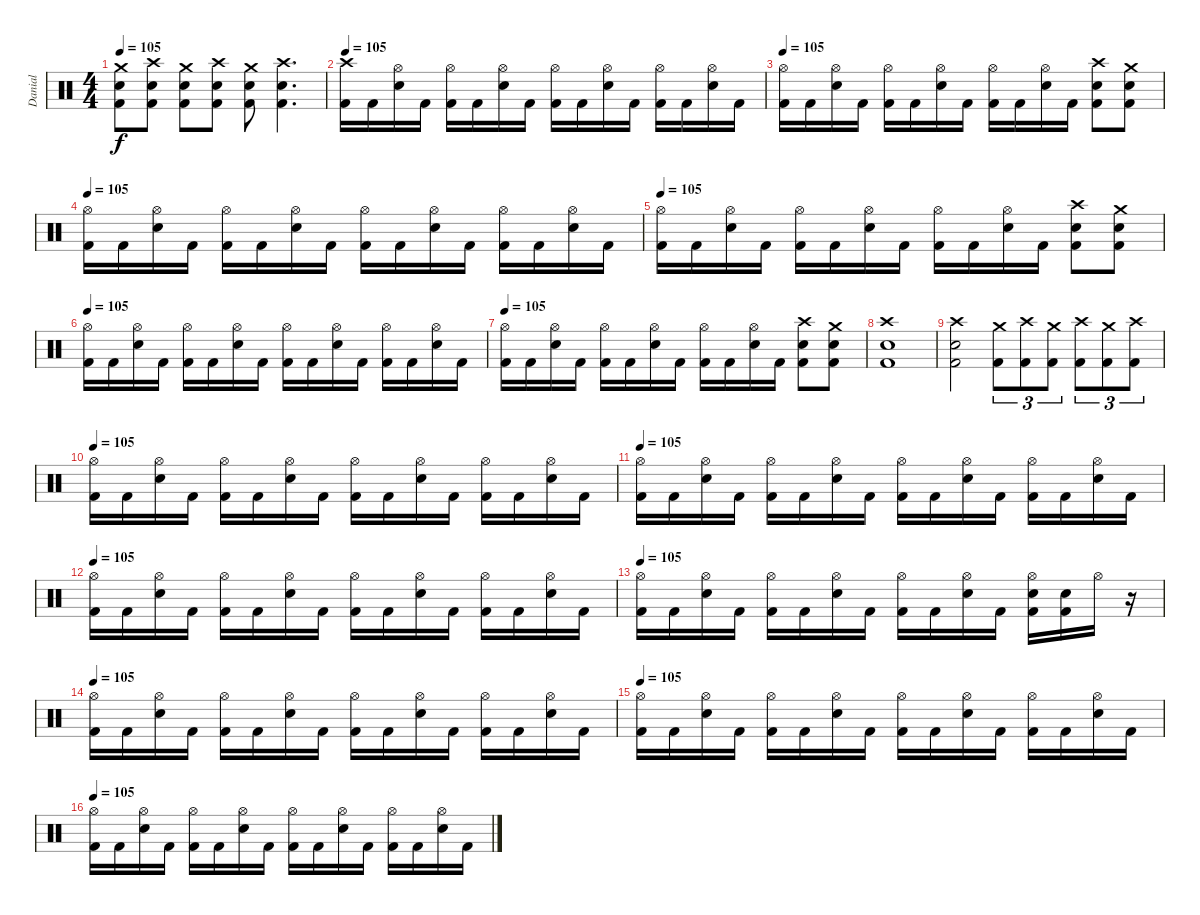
\track ("Danial" "Danial") {instrument percussion}
\staff {score}
\articulation defaults
\ts (4 4)
\tempo 105
\clef neutral
\ks c
("Crash medium (hit)" "Snare (hit) 2" "Kick (hit) 2").8{dy f} ("Crash high (hit)" "Snare (hit) 2" "Kick (hit) 2").8 ("Crash medium (hit)" "Snare (hit) 2" "Kick (hit) 2").8 ("Crash high (hit)" "Snare (hit) 2" "Kick (hit) 2").8 ("Crash medium (hit)" "Snare (hit) 2" "Kick (hit) 2").8 ("Crash high (hit)" "Snare (hit) 2" "Kick (hit) 2").4{d} |
\tempo 105
("Crash high (hit)" "Kick (hit) 2").16 "Kick (hit) 2".16 ("Hi-Hat (open)" "Snare (hit) 2").16 "Kick (hit) 2".16 ("Hi-Hat (open)" "Kick (hit) 2").16 "Kick (hit) 2".16 ("Hi-Hat (open)" "Snare (hit) 2").16 "Kick (hit) 2".16 ("Hi-Hat (open)" "Kick (hit) 2").16 "Kick (hit) 2".16 ("Hi-Hat (open)" "Snare (hit) 2").16 "Kick (hit) 2".16 ("Hi-Hat (open)" "Kick (hit) 2").16 "Kick (hit) 2".16 ("Hi-Hat (open)" "Snare (hit) 2").16 "Kick (hit) 2".16 |
\tempo 105
("Hi-Hat (open)" "Kick (hit) 2").16 "Kick (hit) 2".16 ("Hi-Hat (open)" "Snare (hit) 2").16 "Kick (hit) 2".16 ("Hi-Hat (open)" "Kick (hit) 2").16 "Kick (hit) 2".16 ("Hi-Hat (open)" "Snare (hit) 2").16 "Kick (hit) 2".16 ("Hi-Hat (open)" "Kick (hit) 2").16 "Kick (hit) 2".16 ("Hi-Hat (open)" "Snare (hit) 2").16 "Kick (hit) 2".16 ("Crash high (hit)" "Snare (hit) 2" "Kick (hit) 2").8 ("Crash medium (hit)" "Snare (hit) 2" "Kick (hit) 2").8 |
\tempo 105
("Hi-Hat (open)" "Kick (hit) 2").16 "Kick (hit) 2".16 ("Hi-Hat (open)" "Snare (hit) 2").16 "Kick (hit) 2".16 ("Hi-Hat (open)" "Kick (hit) 2").16 "Kick (hit) 2".16 ("Hi-Hat (open)" "Snare (hit) 2").16 "Kick (hit) 2".16 ("Hi-Hat (open)" "Kick (hit) 2").16 "Kick (hit) 2".16 ("Hi-Hat (open)" "Snare (hit) 2").16 "Kick (hit) 2".16 ("Hi-Hat (open)" "Kick (hit) 2").16 "Kick (hit) 2".16 ("Hi-Hat (open)" "Snare (hit) 2").16 "Kick (hit) 2".16 |
\tempo 105
("Hi-Hat (open)" "Kick (hit) 2").16 "Kick (hit) 2".16 ("Hi-Hat (open)" "Snare (hit) 2").16 "Kick (hit) 2".16 ("Hi-Hat (open)" "Kick (hit) 2").16 "Kick (hit) 2".16 ("Hi-Hat (open)" "Snare (hit) 2").16 "Kick (hit) 2".16 ("Hi-Hat (open)" "Kick (hit) 2").16 "Kick (hit) 2".16 ("Hi-Hat (open)" "Snare (hit) 2").16 "Kick (hit) 2".16 ("Crash high (hit)" "Snare (hit) 2" "Kick (hit) 2").8 ("Crash medium (hit)" "Snare (hit) 2" "Kick (hit) 2").8 |
\tempo 105
("Hi-Hat (open)" "Kick (hit) 2").16 "Kick (hit) 2".16 ("Hi-Hat (open)" "Snare (hit) 2").16 "Kick (hit) 2".16 ("Hi-Hat (open)" "Kick (hit) 2").16 "Kick (hit) 2".16 ("Hi-Hat (open)" "Snare (hit) 2").16 "Kick (hit) 2".16 ("Hi-Hat (open)" "Kick (hit) 2").16 "Kick (hit) 2".16 ("Hi-Hat (open)" "Snare (hit) 2").16 "Kick (hit) 2".16 ("Hi-Hat (open)" "Kick (hit) 2").16 "Kick (hit) 2".16 ("Hi-Hat (open)" "Snare (hit) 2").16 "Kick (hit) 2".16 |
\tempo 105
("Hi-Hat (open)" "Kick (hit) 2").16 "Kick (hit) 2".16 ("Hi-Hat (open)" "Snare (hit) 2").16 "Kick (hit) 2".16 ("Hi-Hat (open)" "Kick (hit) 2").16 "Kick (hit) 2".16 ("Hi-Hat (open)" "Snare (hit) 2").16 "Kick (hit) 2".16 ("Hi-Hat (open)" "Kick (hit) 2").16 "Kick (hit) 2".16 ("Hi-Hat (open)" "Snare (hit) 2").16 "Kick (hit) 2".16 ("Crash high (hit)" "Snare (hit) 2" "Kick (hit) 2").8 ("Crash medium (hit)" "Snare (hit) 2" "Kick (hit) 2").8 |
("Crash high (hit)" "Snare (hit) 2" "Kick (hit) 2").1 |
("Crash high (hit)" "Snare (hit) 2" "Kick (hit) 2").2 ("Crash medium (hit)" "Kick (hit) 2").8{tu (3 2)} ("Crash high (hit)" "Kick (hit) 2").8{tu (3 2)} ("Crash medium (hit)" "Kick (hit) 2").8{tu (3 2)} ("Crash high (hit)" "Kick (hit) 2").8{tu (3 2)} ("Crash medium (hit)" "Kick (hit) 2").8{tu (3 2)} ("Crash high (hit)" "Kick (hit) 2").8{tu (3 2)} |
\tempo 105
("Hi-Hat (open)" "Kick (hit) 2").16 "Kick (hit) 2".16 ("Hi-Hat (open)" "Snare (hit) 2").16 "Kick (hit) 2".16 ("Hi-Hat (open)" "Kick (hit) 2").16 "Kick (hit) 2".16 ("Hi-Hat (open)" "Snare (hit) 2").16 "Kick (hit) 2".16 ("Hi-Hat (open)" "Kick (hit) 2").16 "Kick (hit) 2".16 ("Hi-Hat (open)" "Snare (hit) 2").16 "Kick (hit) 2".16 ("Hi-Hat (open)" "Kick (hit) 2").16 "Kick (hit) 2".16 ("Hi-Hat (open)" "Snare (hit) 2").16 "Kick (hit) 2".16 |
\tempo 105
("Hi-Hat (open)" "Kick (hit) 2").16 "Kick (hit) 2".16 ("Hi-Hat (open)" "Snare (hit) 2").16 "Kick (hit) 2".16 ("Hi-Hat (open)" "Kick (hit) 2").16 "Kick (hit) 2".16 ("Hi-Hat (open)" "Snare (hit) 2").16 "Kick (hit) 2".16 ("Hi-Hat (open)" "Kick (hit) 2").16 "Kick (hit) 2".16 ("Hi-Hat (open)" "Snare (hit) 2").16 "Kick (hit) 2".16 ("Hi-Hat (open)" "Kick (hit) 2").16 "Kick (hit) 2".16 ("Hi-Hat (open)" "Snare (hit) 2").16 "Kick (hit) 2".16 |
\tempo 105
("Hi-Hat (open)" "Kick (hit) 2").16 "Kick (hit) 2".16 ("Hi-Hat (open)" "Snare (hit) 2").16 "Kick (hit) 2".16 ("Hi-Hat (open)" "Kick (hit) 2").16 "Kick (hit) 2".16 ("Hi-Hat (open)" "Snare (hit) 2").16 "Kick (hit) 2".16 ("Hi-Hat (open)" "Kick (hit) 2").16 "Kick (hit) 2".16 ("Hi-Hat (open)" "Snare (hit) 2").16 "Kick (hit) 2".16 ("Hi-Hat (open)" "Kick (hit) 2").16 "Kick (hit) 2".16 ("Hi-Hat (open)" "Snare (hit) 2").16 "Kick (hit) 2".16 |
\tempo 105
("Hi-Hat (open)" "Kick (hit) 2").16 "Kick (hit) 2".16 ("Hi-Hat (open)" "Snare (hit) 2").16 "Kick (hit) 2".16 ("Hi-Hat (open)" "Kick (hit) 2").16 "Kick (hit) 2".16 ("Hi-Hat (open)" "Snare (hit) 2").16 "Kick (hit) 2".16 ("Hi-Hat (open)" "Kick (hit) 2").16 "Kick (hit) 2".16 ("Hi-Hat (open)" "Snare (hit) 2").16 "Kick (hit) 2".16 ("Hi-Hat (open)" "Snare (hit) 2" "Kick (hit) 2").16 ("Snare (hit) 2" "Kick (hit) 2").16 "Hi-Hat (open)".16 r.16 |
\tempo 105
("Hi-Hat (open)" "Kick (hit) 2").16 "Kick (hit) 2".16 ("Hi-Hat (open)" "Snare (hit) 2").16 "Kick (hit) 2".16 ("Hi-Hat (open)" "Kick (hit) 2").16 "Kick (hit) 2".16 ("Hi-Hat (open)" "Snare (hit) 2").16 "Kick (hit) 2".16 ("Hi-Hat (open)" "Kick (hit) 2").16 "Kick (hit) 2".16 ("Hi-Hat (open)" "Snare (hit) 2").16 "Kick (hit) 2".16 ("Hi-Hat (open)" "Kick (hit) 2").16 "Kick (hit) 2".16 ("Hi-Hat (open)" "Snare (hit) 2").16 "Kick (hit) 2".16 |
\tempo 105
("Hi-Hat (open)" "Kick (hit) 2").16 "Kick (hit) 2".16 ("Hi-Hat (open)" "Snare (hit) 2").16 "Kick (hit) 2".16 ("Hi-Hat (open)" "Kick (hit) 2").16 "Kick (hit) 2".16 ("Hi-Hat (open)" "Snare (hit) 2").16 "Kick (hit) 2".16 ("Hi-Hat (open)" "Kick (hit) 2").16 "Kick (hit) 2".16 ("Hi-Hat (open)" "Snare (hit) 2").16 "Kick (hit) 2".16 ("Hi-Hat (open)" "Kick (hit) 2").16 "Kick (hit) 2".16 ("Hi-Hat (open)" "Snare (hit) 2").16 "Kick (hit) 2".16 |
\tempo 105
("Hi-Hat (open)" "Kick (hit) 2").16 "Kick (hit) 2".16 ("Hi-Hat (open)" "Snare (hit) 2").16 "Kick (hit) 2".16 ("Hi-Hat (open)" "Kick (hit) 2").16 "Kick (hit) 2".16 ("Hi-Hat (open)" "Snare (hit) 2").16 "Kick (hit) 2".16 ("Hi-Hat (open)" "Kick (hit) 2").16 "Kick (hit) 2".16 ("Hi-Hat (open)" "Snare (hit) 2").16 "Kick (hit) 2".16 ("Hi-Hat (open)" "Kick (hit) 2").16 "Kick (hit) 2".16 ("Hi-Hat (open)" "Snare (hit) 2").16 "Kick (hit) 2".16
